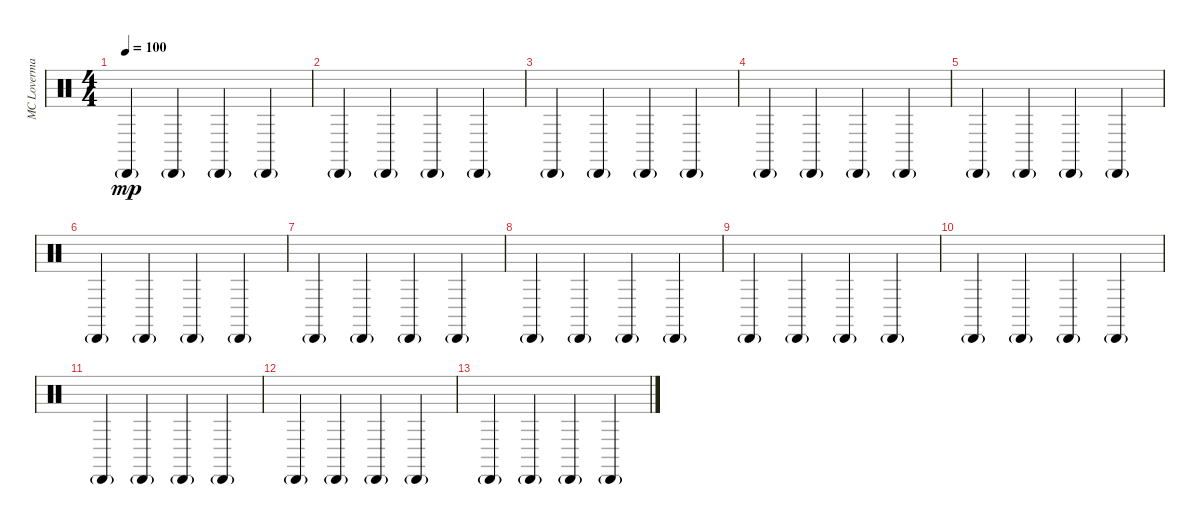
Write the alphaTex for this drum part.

\track ("MC Loverman" "MC Loverma") {instrument percussion}
\staff {score}
\articulation defaults
\ts (4 4)
\tempo 100
\clef neutral
\ks c "Cabasa (hit)"{g}.4{dy mp} "Cabasa (hit)"{g}.4 "Cabasa (hit)"{g}.4 "Cabasa (hit)"{g}.4
|
"Cabasa (hit)"{g}.4 "Cabasa (hit)"{g}.4 "Cabasa (hit)"{g}.4 "Cabasa (hit)"{g}.4 |
"Cabasa (hit)"{g}.4 "Cabasa (hit)"{g}.4 "Cabasa (hit)"{g}.4 "Cabasa (hit)"{g}.4 |
"Cabasa (hit)"{g}.4 "Cabasa (hit)"{g}.4 "Cabasa (hit)"{g}.4 "Cabasa (hit)"{g}.4 |
"Cabasa (hit)"{g}.4 "Cabasa (hit)"{g}.4 "Cabasa (hit)"{g}.4 "Cabasa (hit)"{g}.4 |
"Cabasa (hit)"{g}.4 "Cabasa (hit)"{g}.4 "Cabasa (hit)"{g}.4 "Cabasa (hit)"{g}.4 |
"Cabasa (hit)"{g}.4 "Cabasa (hit)"{g}.4 "Cabasa (hit)"{g}.4 "Cabasa (hit)"{g}.4 |
"Cabasa (hit)"{g}.4 "Cabasa (hit)"{g}.4 "Cabasa (hit)"{g}.4 "Cabasa (hit)"{g}.4 |
"Cabasa (hit)"{g}.4 "Cabasa (hit)"{g}.4 "Cabasa (hit)"{g}.4 "Cabasa (hit)"{g}.4 |
"Cabasa (hit)"{g}.4 "Cabasa (hit)"{g}.4 "Cabasa (hit)"{g}.4 "Cabasa (hit)"{g}.4 |
"Cabasa (hit)"{g}.4 "Cabasa (hit)"{g}.4 "Cabasa (hit)"{g}.4 "Cabasa (hit)"{g}.4 |
"Cabasa (hit)"{g}.4 "Cabasa (hit)"{g}.4 "Cabasa (hit)"{g}.4 "Cabasa (hit)"{g}.4 |
"Cabasa (hit)"{g}.4 "Cabasa (hit)"{g}.4 "Cabasa (hit)"{g}.4 "Cabasa (hit)"{g}.4
